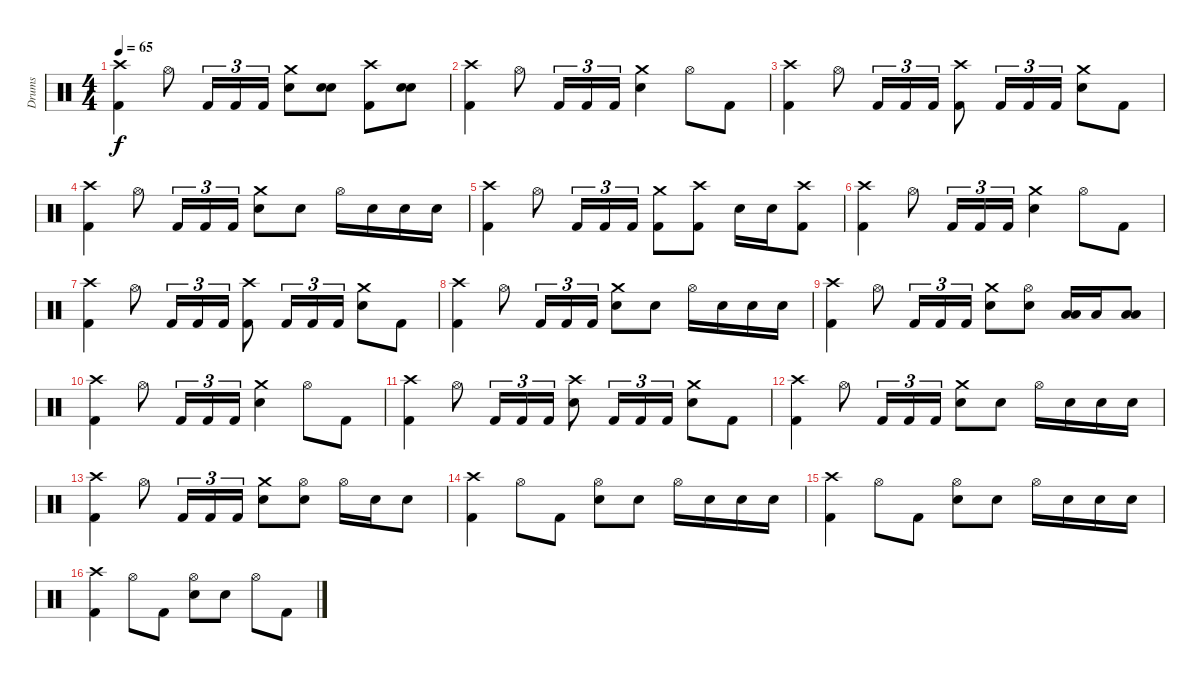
\track ("Drums" "Drums") {instrument percussion}
\staff {score}
\articulation defaults
\ts (4 4)
\tempo 65
\clef neutral
\ks c
("Crash high (hit)" "Kick (hit) 2").4{dy f} "Hi-Hat (open)".8 "Kick (hit) 2".16{tu (3 2)} "Kick (hit) 2".16{tu (3 2)} "Kick (hit) 2".16{tu (3 2)} ("Crash medium (hit)" "Electric Snare (hit)").8 ("Electric Snare (hit)" "Electric Snare (hit)").8{bu 60} ("Crash high (hit)" "Kick (hit) 2").8 ("Electric Snare (hit)" "Electric Snare (hit)").8{bu 60} |
("Crash high (hit)" "Kick (hit) 2").4 "Hi-Hat (open)".8 "Kick (hit) 2".16{tu (3 2)} "Kick (hit) 2".16{tu (3 2)} "Kick (hit) 2".16{tu (3 2)} ("Crash medium (hit)" "Electric Snare (hit)").4 "Hi-Hat (open)".8 "Kick (hit) 2".8 |
("Crash high (hit)" "Kick (hit) 2").4 "Hi-Hat (open)".8 "Kick (hit) 2".16{tu (3 2)} "Kick (hit) 2".16{tu (3 2)} "Kick (hit) 2".16{tu (3 2)} ("Crash high (hit)" "Kick (hit) 2").8 "Kick (hit) 2".16{tu (3 2)} "Kick (hit) 2".16{tu (3 2)} "Kick (hit) 2".16{tu (3 2)} ("Crash medium (hit)" "Electric Snare (hit)").8 "Kick (hit) 2".8 |
("Crash high (hit)" "Kick (hit) 2").4 "Hi-Hat (open)".8 "Kick (hit) 2".16{tu (3 2)} "Kick (hit) 2".16{tu (3 2)} "Kick (hit) 2".16{tu (3 2)} ("Crash medium (hit)" "Electric Snare (hit)").8 "Electric Snare (hit)".8 "Hi-Hat (open)".16 "Electric Snare (hit)".16 "Electric Snare (hit)".16 "Electric Snare (hit)".16 |
("Crash high (hit)" "Kick (hit) 2").4 "Hi-Hat (open)".8 "Kick (hit) 2".16{tu (3 2)} "Kick (hit) 2".16{tu (3 2)} "Kick (hit) 2".16{tu (3 2)} ("Crash medium (hit)" "Kick (hit) 2").8 ("Crash high (hit)" "Kick (hit) 2").8 "Electric Snare (hit)".16 "Electric Snare (hit)".16 ("Crash high (hit)" "Kick (hit) 2").8 |
("Crash high (hit)" "Kick (hit) 2").4 "Hi-Hat (open)".8 "Kick (hit) 2".16{tu (3 2)} "Kick (hit) 2".16{tu (3 2)} "Kick (hit) 2".16{tu (3 2)} ("Crash medium (hit)" "Electric Snare (hit)").4 "Hi-Hat (open)".8 "Kick (hit) 2".8 |
("Crash high (hit)" "Kick (hit) 2").4 "Hi-Hat (open)".8 "Kick (hit) 2".16{tu (3 2)} "Kick (hit) 2".16{tu (3 2)} "Kick (hit) 2".16{tu (3 2)} ("Crash high (hit)" "Kick (hit) 2").8 "Kick (hit) 2".16{tu (3 2)} "Kick (hit) 2".16{tu (3 2)} "Kick (hit) 2".16{tu (3 2)} ("Crash medium (hit)" "Electric Snare (hit)").8 "Kick (hit) 2".8 |
("Crash high (hit)" "Kick (hit) 2").4 "Hi-Hat (open)".8 "Kick (hit) 2".16{tu (3 2)} "Kick (hit) 2".16{tu (3 2)} "Kick (hit) 2".16{tu (3 2)} ("Crash medium (hit)" "Electric Snare (hit)").8 "Electric Snare (hit)".8 "Hi-Hat (open)".16 "Electric Snare (hit)".16 "Electric Snare (hit)".16 "Electric Snare (hit)".16 |
("Crash high (hit)" "Kick (hit) 2").4 "Hi-Hat (open)".8 "Kick (hit) 2".16{tu (3 2)} "Kick (hit) 2".16{tu (3 2)} "Kick (hit) 2".16{tu (3 2)} ("Crash medium (hit)" "Electric Snare (hit)").8 ("Hi-Hat (open)" "Electric Snare (hit)").8 ("Low Tom (hit)" "Low Tom (hit)").16{bu 60} "Low Tom (hit)".16 ("Low Tom (hit)" "Low Tom (hit)").8{bu 60} |
("Crash high (hit)" "Kick (hit) 2").4 "Hi-Hat (open)".8 "Kick (hit) 2".16{tu (3 2)} "Kick (hit) 2".16{tu (3 2)} "Kick (hit) 2".16{tu (3 2)} ("Crash medium (hit)" "Electric Snare (hit)").4 "Hi-Hat (open)".8 "Kick (hit) 2".8 |
("Crash high (hit)" "Kick (hit) 2").4 "Hi-Hat (open)".8 "Kick (hit) 2".16{tu (3 2)} "Kick (hit) 2".16{tu (3 2)} "Kick (hit) 2".16{tu (3 2)} ("Crash high (hit)" "Electric Snare (hit)").8 "Kick (hit) 2".16{tu (3 2)} "Kick (hit) 2".16{tu (3 2)} "Kick (hit) 2".16{tu (3 2)} ("Crash medium (hit)" "Electric Snare (hit)").8 "Kick (hit) 2".8 |
("Crash high (hit)" "Kick (hit) 2").4 "Hi-Hat (open)".8 "Kick (hit) 2".16{tu (3 2)} "Kick (hit) 2".16{tu (3 2)} "Kick (hit) 2".16{tu (3 2)} ("Crash medium (hit)" "Electric Snare (hit)").8 "Electric Snare (hit)".8 "Hi-Hat (open)".16 "Electric Snare (hit)".16 "Electric Snare (hit)".16 "Electric Snare (hit)".16 |
("Crash high (hit)" "Kick (hit) 2").4 "Hi-Hat (open)".8 "Kick (hit) 2".16{tu (3 2)} "Kick (hit) 2".16{tu (3 2)} "Kick (hit) 2".16{tu (3 2)} ("Crash medium (hit)" "Electric Snare (hit)").8 ("Hi-Hat (open)" "Electric Snare (hit)").8 "Hi-Hat (open)".16 "Electric Snare (hit)".16 "Electric Snare (hit)".8 |
("Crash high (hit)" "Kick (hit) 2").4 "Hi-Hat (open)".8 "Kick (hit) 2".8 ("Hi-Hat (open)" "Electric Snare (hit)").8 "Electric Snare (hit)".8 "Hi-Hat (open)".16 "Electric Snare (hit)".16 "Electric Snare (hit)".16 "Electric Snare (hit)".16 |
("Crash high (hit)" "Kick (hit) 2").4 "Hi-Hat (open)".8 "Kick (hit) 2".8 ("Hi-Hat (open)" "Electric Snare (hit)").8 "Electric Snare (hit)".8 "Hi-Hat (open)".16 "Electric Snare (hit)".16 "Electric Snare (hit)".16 "Electric Snare (hit)".16 |
("Crash high (hit)" "Kick (hit) 2").4 "Hi-Hat (open)".8 "Kick (hit) 2".8 ("Hi-Hat (open)" "Electric Snare (hit)").8 "Electric Snare (hit)".8 "Hi-Hat (open)".8 "Kick (hit) 2".8
